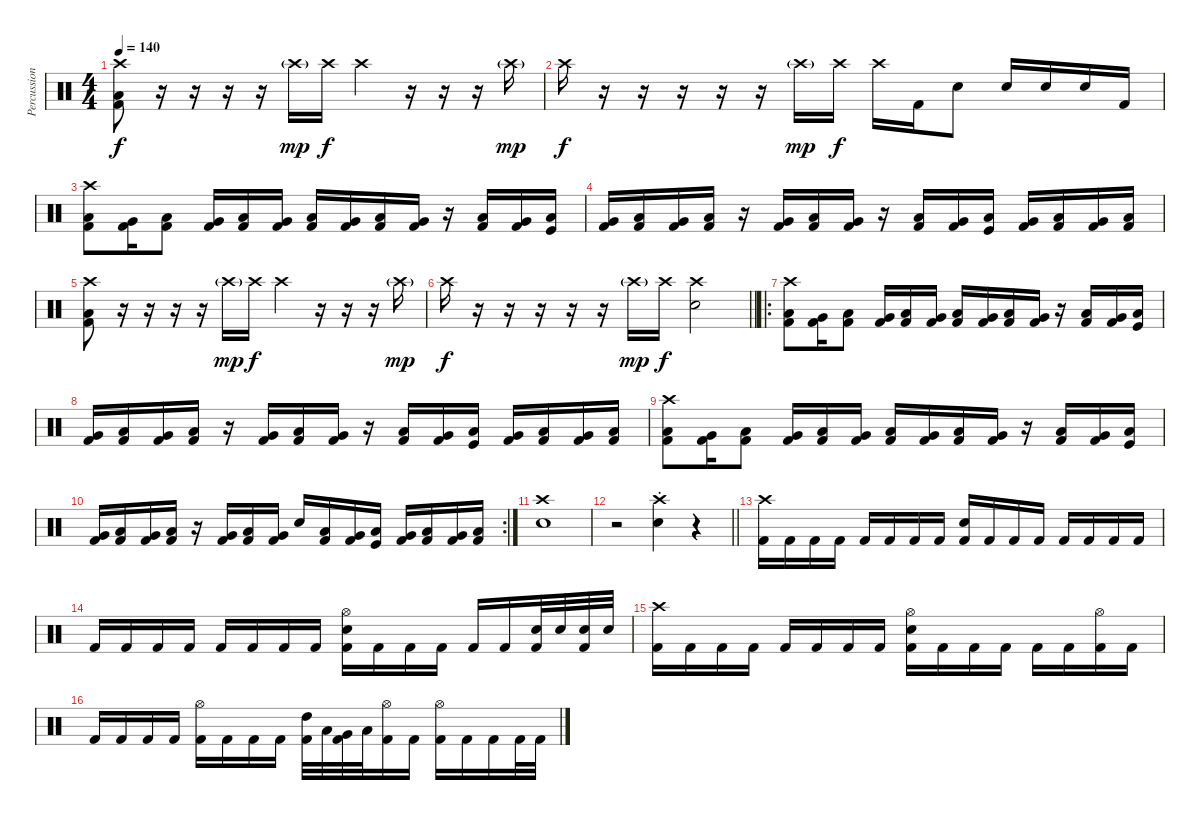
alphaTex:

\track ("Percussion" "Percussion") {instrument percussion}
\staff {score}
\articulation defaults
\ts (4 4)
\tempo 140
\clef neutral
\ks c
("Crash high (hit)" "Low Tom (hit)" "Kick (hit) 2").8{dy f} r.16 r.16 r.16 r.16 "Crash high (hit)"{g}.16{dy mp} "Crash high (hit)".16{dy f} "Crash high (hit)".4 r.16 r.16 r.16 "Crash high (hit)"{g}.16{dy mp} |
"Crash high (hit)".16{dy f} r.16 r.16 r.16 r.16 r.16 "Crash high (hit)"{g}.16{dy mp} "Crash high (hit)".16{dy f} "Crash high (hit)".16 "Kick (hit) 2".16 "Electric Snare (hit)".8 "Electric Snare (hit)".16 "Electric Snare (hit)".16 "Electric Snare (hit)".16 "Kick (hit) 2".16 |
("Crash high (hit)" "Low Tom (hit)" "Kick (hit) 2").8 ("Very Low Tom (hit)" "Kick (hit) 2").16 ("Low Tom (hit)" "Kick (hit) 2").8 ("Very Low Tom (hit)" "Kick (hit) 2").16 ("Low Floor Tom (hit)" "Kick (hit) 2").16 ("Very Low Tom (hit)" "Kick (hit) 2").16 ("Low Tom (hit)" "Kick (hit) 2").16 ("Very Low Tom (hit)" "Kick (hit) 2").16 ("Low Floor Tom (hit)" "Kick (hit) 2").16 ("Very Low Tom (hit)" "Kick (hit) 2").16 r.16 ("Low Floor Tom (hit)" "Kick (hit) 2").16 ("Very Low Tom (hit)" "Kick (hit) 2").16 ("Low Tom (hit)" "Kick (hit)").16 |
("Very Low Tom (hit)" "Kick (hit) 2").16 ("Low Floor Tom (hit)" "Kick (hit) 2").16 ("Very Low Tom (hit)" "Kick (hit) 2").16 ("Low Tom (hit)" "Kick (hit) 2").16 r.16 ("Very Low Tom (hit)" "Kick (hit) 2").16 ("Low Floor Tom (hit)" "Kick (hit) 2").16 ("Very Low Tom (hit)" "Kick (hit) 2").16 r.16 ("Low Floor Tom (hit)" "Kick (hit) 2").16 ("Very Low Tom (hit)" "Kick (hit) 2").16 ("Low Tom (hit)" "Kick (hit)").16 ("Very Low Tom (hit)" "Kick (hit) 2").16 ("Low Floor Tom (hit)" "Kick (hit) 2").16 ("Very Low Tom (hit)" "Kick (hit) 2").16 ("Low Tom (hit)" "Kick (hit) 2").16 |
("Crash high (hit)" "Low Tom (hit)" "Kick (hit) 2").8 r.16 r.16 r.16 r.16 "Crash high (hit)"{g}.16{dy mp} "Crash high (hit)".16{dy f} "Crash high (hit)".4 r.16 r.16 r.16 "Crash high (hit)"{g}.16{dy mp} |
\barLineRight lightlight "Crash high (hit)".16{dy f}
r.16 r.16 r.16 r.16 r.16 "Crash high (hit)"{g}.16{dy mp} "Crash high (hit)".16{dy f} ("Crash high (hit)" "Electric Snare (hit)").2 |
\ro
\section ("" "")
("Crash high (hit)" "Low Tom (hit)" "Kick (hit) 2").8 ("Very Low Tom (hit)" "Kick (hit) 2").16 ("Low Tom (hit)" "Kick (hit) 2").8 ("Very Low Tom (hit)" "Kick (hit) 2").16 ("Low Floor Tom (hit)" "Kick (hit) 2").16 ("Very Low Tom (hit)" "Kick (hit) 2").16 ("Low Tom (hit)" "Kick (hit) 2").16 ("Very Low Tom (hit)" "Kick (hit) 2").16 ("Low Floor Tom (hit)" "Kick (hit) 2").16 ("Very Low Tom (hit)" "Kick (hit) 2").16 r.16 ("Low Floor Tom (hit)" "Kick (hit) 2").16 ("Very Low Tom (hit)" "Kick (hit) 2").16 ("Low Tom (hit)" "Kick (hit)").16 |
("Very Low Tom (hit)" "Kick (hit) 2").16 ("Low Floor Tom (hit)" "Kick (hit) 2").16 ("Very Low Tom (hit)" "Kick (hit) 2").16 ("Low Tom (hit)" "Kick (hit) 2").16 r.16 ("Very Low Tom (hit)" "Kick (hit) 2").16 ("Low Floor Tom (hit)" "Kick (hit) 2").16 ("Very Low Tom (hit)" "Kick (hit) 2").16 r.16 ("Low Floor Tom (hit)" "Kick (hit) 2").16 ("Very Low Tom (hit)" "Kick (hit) 2").16 ("Low Tom (hit)" "Kick (hit)").16 ("Very Low Tom (hit)" "Kick (hit) 2").16 ("Low Floor Tom (hit)" "Kick (hit) 2").16 ("Very Low Tom (hit)" "Kick (hit) 2").16 ("Low Tom (hit)" "Kick (hit) 2").16 |
("Crash high (hit)" "Low Tom (hit)" "Kick (hit) 2").8 ("Very Low Tom (hit)" "Kick (hit) 2").16 ("Low Tom (hit)" "Kick (hit) 2").8 ("Very Low Tom (hit)" "Kick (hit) 2").16 ("Low Floor Tom (hit)" "Kick (hit) 2").16 ("Very Low Tom (hit)" "Kick (hit) 2").16 ("Low Tom (hit)" "Kick (hit) 2").16 ("Very Low Tom (hit)" "Kick (hit) 2").16 ("Low Floor Tom (hit)" "Kick (hit) 2").16 ("Very Low Tom (hit)" "Kick (hit) 2").16 r.16 ("Low Floor Tom (hit)" "Kick (hit) 2").16 ("Very Low Tom (hit)" "Kick (hit) 2").16 ("Low Tom (hit)" "Kick (hit)").16 |
\rc 2
("Very Low Tom (hit)" "Kick (hit) 2").16 ("Low Floor Tom (hit)" "Kick (hit) 2").16 ("Very Low Tom (hit)" "Kick (hit) 2").16 ("Low Tom (hit)" "Kick (hit) 2").16 r.16 ("Very Low Tom (hit)" "Kick (hit) 2").16 ("Low Floor Tom (hit)" "Kick (hit) 2").16 ("Very Low Tom (hit)" "Kick (hit) 2").16 "Electric Snare (hit)".16 ("Low Floor Tom (hit)" "Kick (hit) 2").16 ("Very Low Tom (hit)" "Kick (hit) 2").16 ("Low Tom (hit)" "Kick (hit)").16 ("Very Low Tom (hit)" "Kick (hit) 2").16 ("Low Floor Tom (hit)" "Kick (hit) 2").16 ("Very Low Tom (hit)" "Kick (hit) 2").16 ("Low Tom (hit)" "Kick (hit) 2").16 |
("Crash high (hit)" "Electric Snare (hit)").1 |
\barLineRight lightlight
r.2 ("Crash high (hit)"{st} "Electric Snare (hit)"{st}).4 r.4 |
\section ("" "")
("Crash high (hit)" "Kick (hit) 2").16 "Kick (hit) 2".16 "Kick (hit) 2".16 "Kick (hit) 2".16 "Kick (hit) 2".16 "Kick (hit) 2".16 "Kick (hit) 2".16 "Kick (hit) 2".16 ("Electric Snare (hit)" "Kick (hit) 2").16 "Kick (hit) 2".16 "Kick (hit) 2".16 "Kick (hit) 2".16 "Kick (hit) 2".16 "Kick (hit) 2".16 "Kick (hit) 2".16 "Kick (hit) 2".16 |
"Kick (hit) 2".16 "Kick (hit) 2".16 "Kick (hit) 2".16 "Kick (hit) 2".16 "Kick (hit) 2".16 "Kick (hit) 2".16 "Kick (hit) 2".16 "Kick (hit) 2".16 ("Hi-Hat (open)" "Electric Snare (hit)" "Kick (hit) 2").16 "Kick (hit) 2".16 "Kick (hit) 2".16 "Kick (hit) 2".16 "Kick (hit) 2".16 "Kick (hit) 2".16 ("Electric Snare (hit)" "Kick (hit) 2").32 "Electric Snare (hit)".32 ("Electric Snare (hit)" "Kick (hit) 2").32 "Electric Snare (hit)".32 |
("Crash high (hit)" "Kick (hit) 2").16 "Kick (hit) 2".16 "Kick (hit) 2".16 "Kick (hit) 2".16 "Kick (hit) 2".16 "Kick (hit) 2".16 "Kick (hit) 2".16 "Kick (hit) 2".16 ("Hi-Hat (open)" "Electric Snare (hit)" "Kick (hit) 2").16 "Kick (hit) 2".16 "Kick (hit) 2".16 "Kick (hit) 2".16 "Kick (hit) 2".16 "Kick (hit) 2".16 ("Hi-Hat (open)" "Kick (hit) 2").16 "Kick (hit) 2".16 |
"Kick (hit) 2".16 "Kick (hit) 2".16 "Kick (hit) 2".16 "Kick (hit) 2".16 ("Hi-Hat (open)" "Kick (hit) 2").16 "Kick (hit) 2".16 "Kick (hit) 2".16 "Kick (hit) 2".16 ("High Tom (hit)" "Kick (hit) 2").32 "Low Tom (hit)".32 ("Very Low Tom (hit)" "Kick (hit) 2").32 "Low Floor Tom (hit)".32 ("Hi-Hat (open)" "Kick (hit) 2").16 "Kick (hit) 2".16 ("Hi-Hat (open)" "Kick (hit) 2").16 "Kick (hit) 2".16 "Kick (hit) 2".16 "Kick (hit) 2".32 "Kick (hit) 2".32
